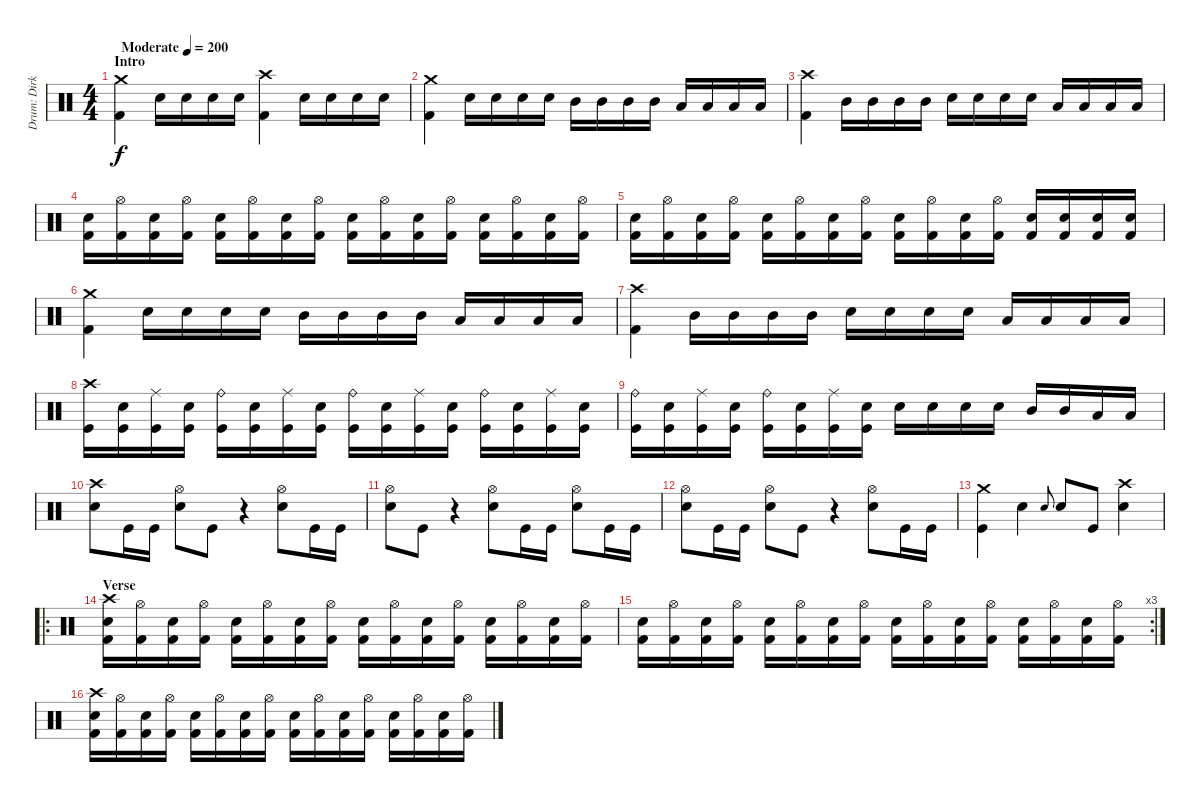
\track ("Drum: Dirk" "Drum: Dirk") {instrument percussion}
\staff {score}
\articulation defaults
\ts (4 4)
\section ("" "Intro")
\tempo (200 "Moderate")
\clef neutral
\ks c
("Crash medium (hit)" "Kick (hit) 2").4{dy f} "Electric Snare (hit)".16 "Electric Snare (hit)".16 "Electric Snare (hit)".16 "Electric Snare (hit)".16 ("Crash high (hit)" "Kick (hit) 2").4 "Electric Snare (hit)".16 "Electric Snare (hit)".16 "Electric Snare (hit)".16 "Electric Snare (hit)".16 |
("Crash medium (hit)" "Kick (hit) 2").4 "Electric Snare (hit)".16 "Electric Snare (hit)".16 "Electric Snare (hit)".16 "Electric Snare (hit)".16 "Mid Tom (hit)".16 "Mid Tom (hit)".16 "Mid Tom (hit)".16 "Mid Tom (hit)".16 "Low Tom (hit)".16 "Low Tom (hit)".16 "Low Tom (hit)".16 "Low Tom (hit)".16 |
("Crash high (hit)" "Kick (hit) 2").4 "Mid Tom (hit)".16 "Mid Tom (hit)".16 "Mid Tom (hit)".16 "Mid Tom (hit)".16 "Electric Snare (hit)".16 "Electric Snare (hit)".16 "Electric Snare (hit)".16 "Electric Snare (hit)".16 "Low Tom (hit)".16 "Low Tom (hit)".16 "Low Tom (hit)".16 "Low Tom (hit)".16 |
("Electric Snare (hit)" "Kick (hit) 2").16 ("Hi-Hat (open)" "Kick (hit) 2").16 ("Electric Snare (hit)" "Kick (hit) 2").16 ("Hi-Hat (open)" "Kick (hit) 2").16 ("Electric Snare (hit)" "Kick (hit) 2").16 ("Hi-Hat (open)" "Kick (hit) 2").16 ("Electric Snare (hit)" "Kick (hit) 2").16 ("Hi-Hat (open)" "Kick (hit) 2").16 ("Electric Snare (hit)" "Kick (hit) 2").16 ("Hi-Hat (open)" "Kick (hit) 2").16 ("Electric Snare (hit)" "Kick (hit) 2").16 ("Hi-Hat (open)" "Kick (hit) 2").16 ("Electric Snare (hit)" "Kick (hit) 2").16 ("Hi-Hat (open)" "Kick (hit) 2").16 ("Electric Snare (hit)" "Kick (hit) 2").16 ("Hi-Hat (open)" "Kick (hit) 2").16 |
("Electric Snare (hit)" "Kick (hit) 2").16 ("Hi-Hat (open)" "Kick (hit) 2").16 ("Electric Snare (hit)" "Kick (hit) 2").16 ("Hi-Hat (open)" "Kick (hit) 2").16 ("Electric Snare (hit)" "Kick (hit) 2").16 ("Hi-Hat (open)" "Kick (hit) 2").16 ("Electric Snare (hit)" "Kick (hit) 2").16 ("Hi-Hat (open)" "Kick (hit) 2").16 ("Electric Snare (hit)" "Kick (hit) 2").16 ("Hi-Hat (open)" "Kick (hit) 2").16 ("Electric Snare (hit)" "Kick (hit) 2").16 ("Hi-Hat (open)" "Kick (hit) 2").16 ("Electric Snare (hit)" "Kick (hit) 2").16 ("Electric Snare (hit)" "Kick (hit) 2").16 ("Electric Snare (hit)" "Kick (hit) 2").16 ("Electric Snare (hit)" "Kick (hit) 2").16 |
("Crash medium (hit)" "Kick (hit) 2").4 "Electric Snare (hit)".16 "Electric Snare (hit)".16 "Electric Snare (hit)".16 "Electric Snare (hit)".16 "Mid Tom (hit)".16 "Mid Tom (hit)".16 "Mid Tom (hit)".16 "Mid Tom (hit)".16 "Low Tom (hit)".16 "Low Tom (hit)".16 "Low Tom (hit)".16 "Low Tom (hit)".16 |
("Crash high (hit)" "Kick (hit) 2").4 "Mid Tom (hit)".16 "Mid Tom (hit)".16 "Mid Tom (hit)".16 "Mid Tom (hit)".16 "Electric Snare (hit)".16 "Electric Snare (hit)".16 "Electric Snare (hit)".16 "Electric Snare (hit)".16 "Low Tom (hit)".16 "Low Tom (hit)".16 "Low Tom (hit)".16 "Low Tom (hit)".16 |
("Crash high (hit)" "Kick (hit)").16 ("Electric Snare (hit)" "Kick (hit)").16 ("Ride (middle)" "Kick (hit)").16 ("Electric Snare (hit)" "Kick (hit)").16 ("Ride (bell)" "Kick (hit)").16 ("Electric Snare (hit)" "Kick (hit)").16 ("Ride (middle)" "Kick (hit)").16 ("Electric Snare (hit)" "Kick (hit)").16 ("Ride (bell)" "Kick (hit)").16 ("Electric Snare (hit)" "Kick (hit)").16 ("Ride (middle)" "Kick (hit)").16 ("Electric Snare (hit)" "Kick (hit)").16 ("Ride (bell)" "Kick (hit)").16 ("Electric Snare (hit)" "Kick (hit)").16 ("Ride (middle)" "Kick (hit)").16 ("Electric Snare (hit)" "Kick (hit)").16 |
("Ride (bell)" "Kick (hit)").16 ("Electric Snare (hit)" "Kick (hit)").16 ("Ride (middle)" "Kick (hit)").16 ("Electric Snare (hit)" "Kick (hit)").16 ("Ride (bell)" "Kick (hit)").16 ("Electric Snare (hit)" "Kick (hit)").16 ("Ride (middle)" "Kick (hit)").16 ("Electric Snare (hit)" "Kick (hit)").16 "Electric Snare (hit)".16 "Electric Snare (hit)".16 "Electric Snare (hit)".16 "Electric Snare (hit)".16 "Mid Tom (hit)".16 "Mid Tom (hit)".16 "Low Tom (hit)".16 "Low Tom (hit)".16 |
("Crash high (hit)" "Electric Snare (hit)").8 "Kick (hit)".16 "Kick (hit)".16 ("Hi-Hat (open)" "Electric Snare (hit)").8 "Kick (hit)".8 r.4 ("Hi-Hat (open)" "Electric Snare (hit)").8 "Kick (hit)".16 "Kick (hit)".16 |
("Hi-Hat (open)" "Electric Snare (hit)").8 "Kick (hit)".8 r.4 ("Hi-Hat (open)" "Electric Snare (hit)").8 "Kick (hit)".16 "Kick (hit)".16 ("Hi-Hat (open)" "Electric Snare (hit)").8 "Kick (hit)".16 "Kick (hit)".16 |
("Hi-Hat (open)" "Electric Snare (hit)").8 "Kick (hit)".16 "Kick (hit)".16 ("Hi-Hat (open)" "Electric Snare (hit)").8 "Kick (hit)".8 r.4 ("Hi-Hat (open)" "Electric Snare (hit)").8 "Kick (hit)".16 "Kick (hit)".16 |
("Crash medium (hit)" "Kick (hit)").4 "Electric Snare (hit)".4 "Electric Snare (hit)".8{gr onbeat} "Electric Snare (hit)".8 "Kick (hit)".8 ("Crash high (hit)" "Electric Snare (hit)").4 |
\ro
\section ("" "Verse")
("Crash high (hit)" "Electric Snare (hit)" "Kick (hit) 2").16 ("Hi-Hat (open)" "Kick (hit) 2").16 ("Electric Snare (hit)" "Kick (hit) 2").16 ("Hi-Hat (open)" "Kick (hit) 2").16 ("Electric Snare (hit)" "Kick (hit) 2").16 ("Hi-Hat (open)" "Kick (hit) 2").16 ("Electric Snare (hit)" "Kick (hit) 2").16 ("Hi-Hat (open)" "Kick (hit) 2").16 ("Electric Snare (hit)" "Kick (hit) 2").16 ("Hi-Hat (open)" "Kick (hit) 2").16 ("Electric Snare (hit)" "Kick (hit) 2").16 ("Hi-Hat (open)" "Kick (hit) 2").16 ("Electric Snare (hit)" "Kick (hit) 2").16 ("Hi-Hat (open)" "Kick (hit) 2").16 ("Electric Snare (hit)" "Kick (hit) 2").16 ("Hi-Hat (open)" "Kick (hit) 2").16 |
\rc 3
("Electric Snare (hit)" "Kick (hit) 2").16 ("Hi-Hat (open)" "Kick (hit) 2").16 ("Electric Snare (hit)" "Kick (hit) 2").16 ("Hi-Hat (open)" "Kick (hit) 2").16 ("Electric Snare (hit)" "Kick (hit) 2").16 ("Hi-Hat (open)" "Kick (hit) 2").16 ("Electric Snare (hit)" "Kick (hit) 2").16 ("Hi-Hat (open)" "Kick (hit) 2").16 ("Electric Snare (hit)" "Kick (hit) 2").16 ("Hi-Hat (open)" "Kick (hit) 2").16 ("Electric Snare (hit)" "Kick (hit) 2").16 ("Hi-Hat (open)" "Kick (hit) 2").16 ("Electric Snare (hit)" "Kick (hit) 2").16 ("Hi-Hat (open)" "Kick (hit) 2").16 ("Electric Snare (hit)" "Kick (hit) 2").16 ("Hi-Hat (open)" "Kick (hit) 2").16 |
("Crash high (hit)" "Electric Snare (hit)" "Kick (hit) 2").16 ("Hi-Hat (open)" "Kick (hit) 2").16 ("Electric Snare (hit)" "Kick (hit) 2").16 ("Hi-Hat (open)" "Kick (hit) 2").16 ("Electric Snare (hit)" "Kick (hit) 2").16 ("Hi-Hat (open)" "Kick (hit) 2").16 ("Electric Snare (hit)" "Kick (hit) 2").16 ("Hi-Hat (open)" "Kick (hit) 2").16 ("Electric Snare (hit)" "Kick (hit) 2").16 ("Hi-Hat (open)" "Kick (hit) 2").16 ("Electric Snare (hit)" "Kick (hit) 2").16 ("Hi-Hat (open)" "Kick (hit) 2").16 ("Electric Snare (hit)" "Kick (hit) 2").16 ("Hi-Hat (open)" "Kick (hit) 2").16 ("Electric Snare (hit)" "Kick (hit) 2").16 ("Hi-Hat (open)" "Kick (hit) 2").16
